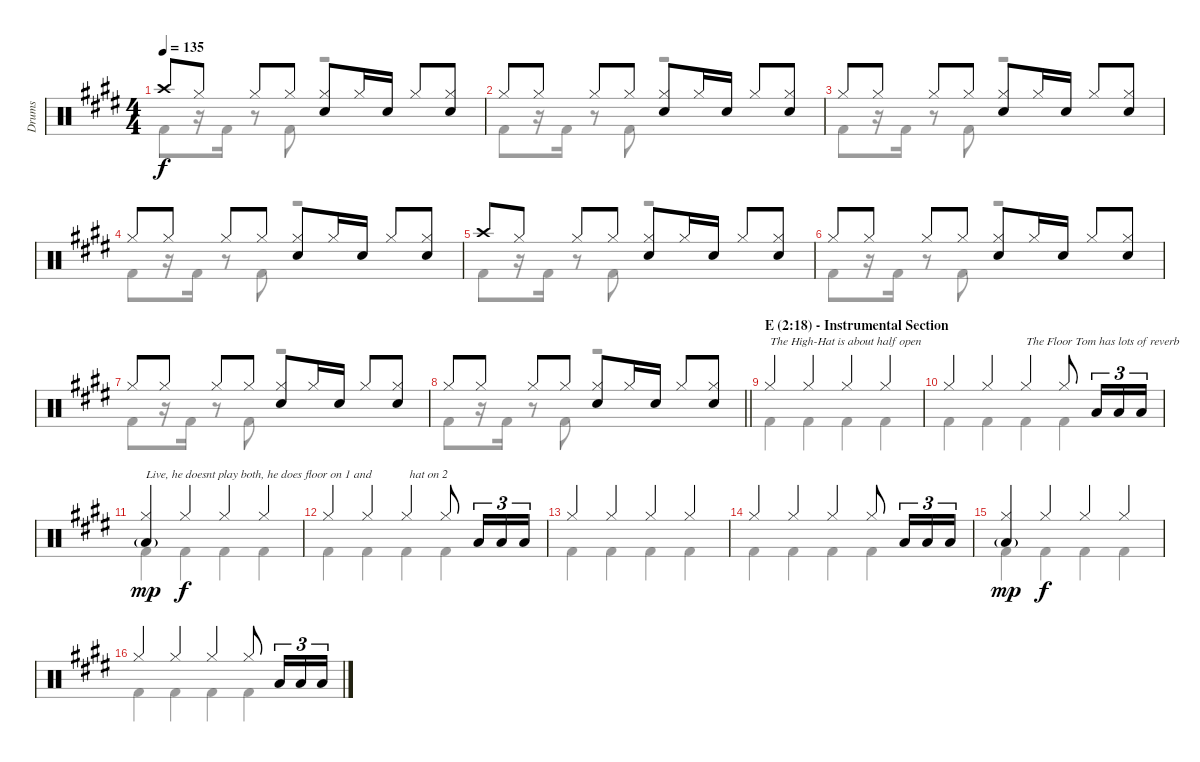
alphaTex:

\track ("Drums" "Drums") {instrument percussion}
\staff {score}
\articulation defaults
\voice
\ts (4 4)
\tempo 135
\clef neutral
\ks c#minor "Crash high (hit)".8{dy f} "Hi-Hat (closed)".8 "Hi-Hat (closed)".8 "Hi-Hat (closed)".8
("Hi-Hat (closed)" "Snare (hit) 2").8 "Hi-Hat (closed)".16 "Snare (hit) 2".16 "Hi-Hat (closed)".8 ("Hi-Hat (closed)" "Snare (hit) 2").8 |
"Hi-Hat (closed)".8 "Hi-Hat (closed)".8 "Hi-Hat (closed)".8 "Hi-Hat (closed)".8 ("Hi-Hat (closed)" "Snare (hit) 2").8 "Hi-Hat (closed)".16 "Snare (hit) 2".16 "Hi-Hat (closed)".8 ("Hi-Hat (closed)" "Snare (hit) 2").8 |
"Hi-Hat (closed)".8 "Hi-Hat (closed)".8 "Hi-Hat (closed)".8 "Hi-Hat (closed)".8 ("Hi-Hat (closed)" "Snare (hit) 2").8 "Hi-Hat (closed)".16 "Snare (hit) 2".16 "Hi-Hat (closed)".8 ("Hi-Hat (closed)" "Snare (hit) 2").8 |
"Hi-Hat (closed)".8 "Hi-Hat (closed)".8 "Hi-Hat (closed)".8 "Hi-Hat (closed)".8 ("Hi-Hat (closed)" "Snare (hit) 2").8 "Hi-Hat (closed)".16 "Snare (hit) 2".16 "Hi-Hat (closed)".8 ("Hi-Hat (closed)" "Snare (hit) 2").8 |
"Crash high (hit)".8 "Hi-Hat (closed)".8 "Hi-Hat (closed)".8 "Hi-Hat (closed)".8 ("Hi-Hat (closed)" "Snare (hit) 2").8 "Hi-Hat (closed)".16 "Snare (hit) 2".16 "Hi-Hat (closed)".8 ("Hi-Hat (closed)" "Snare (hit) 2").8 |
"Hi-Hat (closed)".8 "Hi-Hat (closed)".8 "Hi-Hat (closed)".8 "Hi-Hat (closed)".8 ("Hi-Hat (closed)" "Snare (hit) 2").8 "Hi-Hat (closed)".16 "Snare (hit) 2".16 "Hi-Hat (closed)".8 ("Hi-Hat (closed)" "Snare (hit) 2").8 |
"Hi-Hat (closed)".8 "Hi-Hat (closed)".8 "Hi-Hat (closed)".8 "Hi-Hat (closed)".8 ("Hi-Hat (closed)" "Snare (hit) 2").8 "Hi-Hat (closed)".16 "Snare (hit) 2".16 "Hi-Hat (closed)".8 ("Hi-Hat (closed)" "Snare (hit) 2").8 |
\barLineRight lightlight "Hi-Hat (closed)".8 "Hi-Hat (closed)".8 "Hi-Hat (closed)".8 "Hi-Hat (closed)".8
("Hi-Hat (closed)" "Snare (hit) 2").8 "Hi-Hat (closed)".16 "Snare (hit) 2".16 "Hi-Hat (closed)".8 ("Hi-Hat (closed)" "Snare (hit) 2").8 |
\section ("" "E (2:18) - Instrumental Section")
"Hi-Hat (closed)".4{txt "The High-Hat is about half open"} "Hi-Hat (closed)".4 "Hi-Hat (closed)".4 "Hi-Hat (closed)".4 |
"Hi-Hat (closed)".4 "Hi-Hat (closed)".4 "Hi-Hat (closed)".4{txt "The Floor Tom has lots of reverb"} "Hi-Hat (closed)".8 "Low Tom (hit)".16{tu (3 2)} "Low Tom (hit)".16{tu (3 2)} "Low Tom (hit)".16{tu (3 2)} |
("Hi-Hat (closed)" "Low Tom (hit)"{g}).4{txt "Live, he doesnt play both, he does floor on 1 and" dy mp} "Hi-Hat (closed)".4{dy f} "Hi-Hat (closed)".4 "Hi-Hat (closed)".4 |
"Hi-Hat (closed)".4 "Hi-Hat (closed)".4 "Hi-Hat (closed)".4{txt " hat on 2"} "Hi-Hat (closed)".8 "Low Tom (hit)".16{tu (3 2)} "Low Tom (hit)".16{tu (3 2)} "Low Tom (hit)".16{tu (3 2)} |
"Hi-Hat (closed)".4 "Hi-Hat (closed)".4 "Hi-Hat (closed)".4 "Hi-Hat (closed)".4 |
"Hi-Hat (closed)".4 "Hi-Hat (closed)".4 "Hi-Hat (closed)".4 "Hi-Hat (closed)".8 "Low Tom (hit)".16{tu (3 2)} "Low Tom (hit)".16{tu (3 2)} "Low Tom (hit)".16{tu (3 2)} |
("Hi-Hat (closed)" "Low Tom (hit)"{g}).4{dy mp} "Hi-Hat (closed)".4{dy f} "Hi-Hat (closed)".4 "Hi-Hat (closed)".4 |
"Hi-Hat (closed)".4 "Hi-Hat (closed)".4 "Hi-Hat (closed)".4 "Hi-Hat (closed)".8 "Low Tom (hit)".16{tu (3 2)} "Low Tom (hit)".16{tu (3 2)} "Low Tom (hit)".16{tu (3 2)}
\voice
\clef neutral
\ottava regular
\simile none
\ks c#minor "Kick (hit) 2".8{dy f}
r.16 "Kick (hit) 2".16 r.8 "Kick (hit) 2".8 r.2 |
"Kick (hit) 2".8 r.16 "Kick (hit) 2".16 r.8 "Kick (hit) 2".8 r.2 |
"Kick (hit) 2".8 r.16 "Kick (hit) 2".16 r.8 "Kick (hit) 2".8 r.2 |
"Kick (hit) 2".8 r.16 "Kick (hit) 2".16 r.8 "Kick (hit) 2".8 r.2 |
"Kick (hit) 2".8 r.16 "Kick (hit) 2".16 r.8 "Kick (hit) 2".8 r.2 |
"Kick (hit) 2".8 r.16 "Kick (hit) 2".16 r.8 "Kick (hit) 2".8 r.2 |
"Kick (hit) 2".8 r.16 "Kick (hit) 2".16 r.8 "Kick (hit) 2".8 r.2 |
\barLineRight lightlight "Kick (hit) 2".8
r.16 "Kick (hit) 2".16 r.8 "Kick (hit) 2".8 r.2 |
"Kick (hit) 2".4 "Kick (hit) 2".4 "Kick (hit) 2".4 "Kick (hit) 2".4 |
"Kick (hit) 2".4 "Kick (hit) 2".4 "Kick (hit) 2".4 "Kick (hit) 2".4 |
"Kick (hit) 2".4 "Kick (hit) 2".4 "Kick (hit) 2".4 "Kick (hit) 2".4 |
"Kick (hit) 2".4 "Kick (hit) 2".4 "Kick (hit) 2".4 "Kick (hit) 2".4 |
"Kick (hit) 2".4 "Kick (hit) 2".4 "Kick (hit) 2".4 "Kick (hit) 2".4 |
"Kick (hit) 2".4 "Kick (hit) 2".4 "Kick (hit) 2".4 "Kick (hit) 2".4 |
"Kick (hit) 2".4 "Kick (hit) 2".4 "Kick (hit) 2".4 "Kick (hit) 2".4 |
"Kick (hit) 2".4 "Kick (hit) 2".4 "Kick (hit) 2".4 "Kick (hit) 2".4
